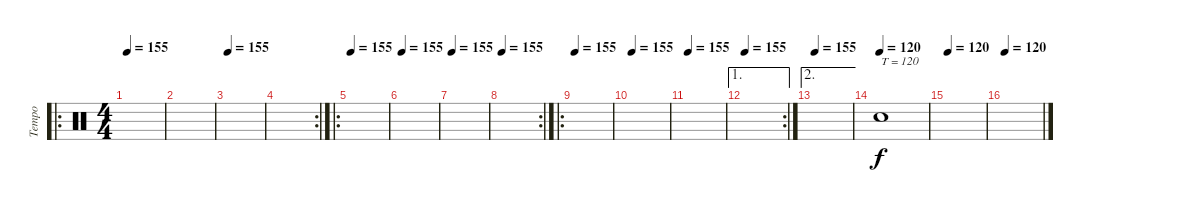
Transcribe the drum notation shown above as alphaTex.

\track ("Tempo" "Tempo") {instrument percussion}
\staff {score}
\articulation defaults
\ro
\ts (4 4)
\tempo 155
\clef neutral
\ks c
|
|
\tempo 155
|
\rc 2
|
\ro
\tempo 155
|
\tempo 155
|
\tempo 155
|
\rc 2
\tempo 155
|
\ro
\tempo 155
|
\tempo 155
|
\tempo 155
|
\ae 1
\rc 2
\tempo 155
|
\ae 2
\tempo 155
|
\tempo (120)
"Snare (hit)"{x}.1{txt "T = 120"} |
\tempo 120
|
\tempo 120
